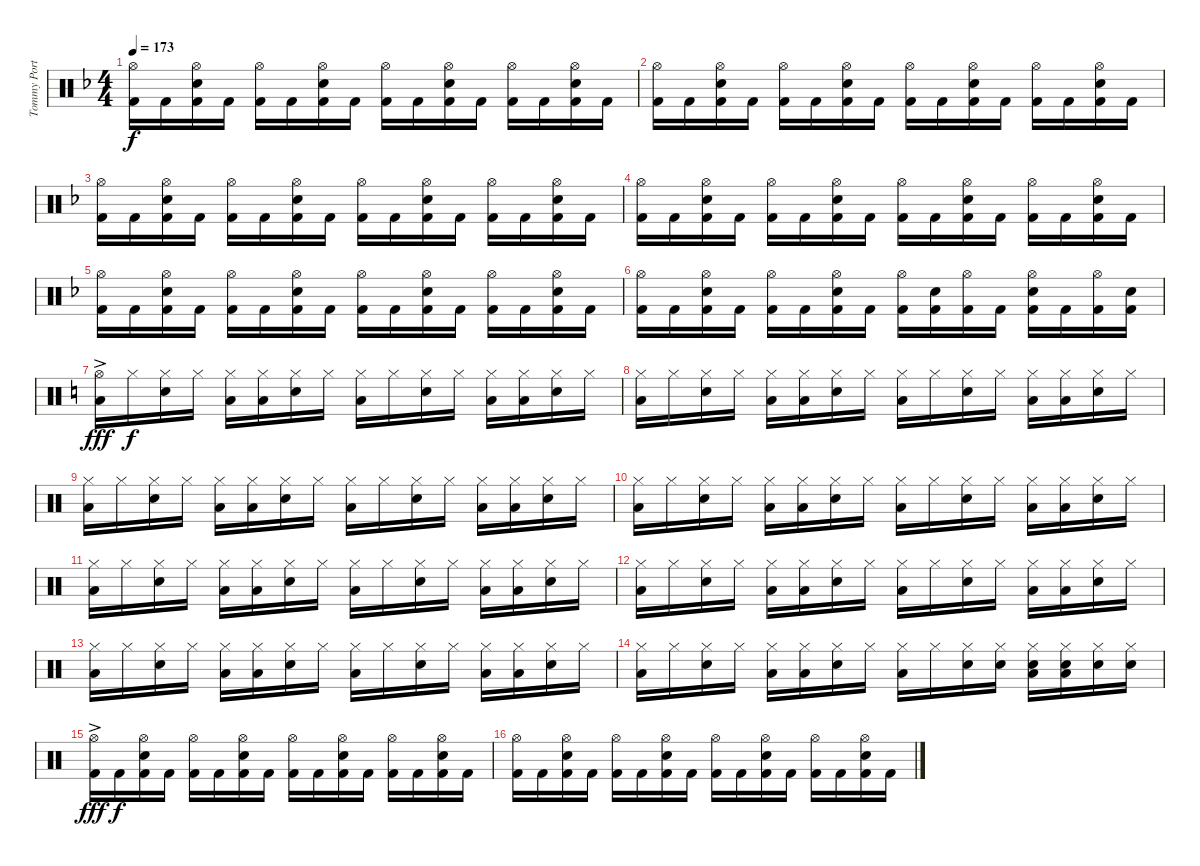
\track ("Tommy Portimo - Drums" "Tommy Port") {instrument percussion}
\staff {score}
\articulation defaults
\ts (4 4)
\tempo 173
\clef neutral
\ks dminor
("Kick (hit) 2" "Hi-Hat (open)").16{dy f} "Kick (hit) 2".16 ("Kick (hit) 2" "Electric Snare (hit)" "Hi-Hat (open)").16 "Kick (hit) 2".16 ("Kick (hit) 2" "Hi-Hat (open)").16 "Kick (hit) 2".16 ("Kick (hit) 2" "Electric Snare (hit)" "Hi-Hat (open)").16 "Kick (hit) 2".16 ("Kick (hit) 2" "Hi-Hat (open)").16 "Kick (hit) 2".16 ("Kick (hit) 2" "Electric Snare (hit)" "Hi-Hat (open)").16 "Kick (hit) 2".16 ("Kick (hit) 2" "Hi-Hat (open)").16 "Kick (hit) 2".16 ("Kick (hit) 2" "Electric Snare (hit)" "Hi-Hat (open)").16 "Kick (hit) 2".16 |
("Kick (hit) 2" "Hi-Hat (open)").16 "Kick (hit) 2".16 ("Kick (hit) 2" "Electric Snare (hit)" "Hi-Hat (open)").16 "Kick (hit) 2".16 ("Kick (hit) 2" "Hi-Hat (open)").16 "Kick (hit) 2".16 ("Kick (hit) 2" "Electric Snare (hit)" "Hi-Hat (open)").16 "Kick (hit) 2".16 ("Kick (hit) 2" "Hi-Hat (open)").16 "Kick (hit) 2".16 ("Kick (hit) 2" "Electric Snare (hit)" "Hi-Hat (open)").16 "Kick (hit) 2".16 ("Kick (hit) 2" "Hi-Hat (open)").16 "Kick (hit) 2".16 ("Kick (hit) 2" "Electric Snare (hit)" "Hi-Hat (open)").16 "Kick (hit) 2".16 |
("Kick (hit) 2" "Hi-Hat (open)").16 "Kick (hit) 2".16 ("Kick (hit) 2" "Electric Snare (hit)" "Hi-Hat (open)").16 "Kick (hit) 2".16 ("Kick (hit) 2" "Hi-Hat (open)").16 "Kick (hit) 2".16 ("Kick (hit) 2" "Electric Snare (hit)" "Hi-Hat (open)").16 "Kick (hit) 2".16 ("Kick (hit) 2" "Hi-Hat (open)").16 "Kick (hit) 2".16 ("Kick (hit) 2" "Electric Snare (hit)" "Hi-Hat (open)").16 "Kick (hit) 2".16 ("Kick (hit) 2" "Hi-Hat (open)").16 "Kick (hit) 2".16 ("Kick (hit) 2" "Electric Snare (hit)" "Hi-Hat (open)").16 "Kick (hit) 2".16 |
("Kick (hit) 2" "Hi-Hat (open)").16 "Kick (hit) 2".16 ("Kick (hit) 2" "Electric Snare (hit)" "Hi-Hat (open)").16 "Kick (hit) 2".16 ("Kick (hit) 2" "Hi-Hat (open)").16 "Kick (hit) 2".16 ("Kick (hit) 2" "Electric Snare (hit)" "Hi-Hat (open)").16 "Kick (hit) 2".16 ("Kick (hit) 2" "Hi-Hat (open)").16 "Kick (hit) 2".16 ("Kick (hit) 2" "Electric Snare (hit)" "Hi-Hat (open)").16 "Kick (hit) 2".16 ("Kick (hit) 2" "Hi-Hat (open)").16 "Kick (hit) 2".16 ("Kick (hit) 2" "Electric Snare (hit)" "Hi-Hat (open)").16 "Kick (hit) 2".16 |
("Kick (hit) 2" "Hi-Hat (open)").16 "Kick (hit) 2".16 ("Kick (hit) 2" "Electric Snare (hit)" "Hi-Hat (open)").16 "Kick (hit) 2".16 ("Kick (hit) 2" "Hi-Hat (open)").16 "Kick (hit) 2".16 ("Kick (hit) 2" "Electric Snare (hit)" "Hi-Hat (open)").16 "Kick (hit) 2".16 ("Kick (hit) 2" "Hi-Hat (open)").16 "Kick (hit) 2".16 ("Kick (hit) 2" "Electric Snare (hit)" "Hi-Hat (open)").16 "Kick (hit) 2".16 ("Kick (hit) 2" "Hi-Hat (open)").16 "Kick (hit) 2".16 ("Kick (hit) 2" "Electric Snare (hit)" "Hi-Hat (open)").16 "Kick (hit) 2".16 |
("Kick (hit) 2" "Hi-Hat (open)").16 "Kick (hit) 2".16 ("Kick (hit) 2" "Electric Snare (hit)" "Hi-Hat (open)").16 "Kick (hit) 2".16 ("Kick (hit) 2" "Hi-Hat (open)").16 "Kick (hit) 2".16 ("Kick (hit) 2" "Electric Snare (hit)" "Hi-Hat (open)").16 "Kick (hit) 2".16 ("Kick (hit) 2" "Hi-Hat (open)").16 ("Kick (hit) 2" "Electric Snare (hit)").16 ("Kick (hit) 2" "Hi-Hat (open)").16 "Kick (hit) 2".16 ("Kick (hit) 2" "Electric Snare (hit)" "Hi-Hat (open)").16 "Kick (hit) 2".16 ("Kick (hit) 2" "Hi-Hat (open)").16 ("Kick (hit) 2" "Electric Snare (hit)").16 |
\ks c
("Low Floor Tom (hit)"{ac} "Hi-Hat (open)").16{dy fff} "Hi-Hat (closed)".16{dy f} ("Electric Snare (hit)" "Hi-Hat (closed)").16 "Hi-Hat (closed)".16 ("Low Floor Tom (hit)" "Hi-Hat (closed)").16 ("Low Floor Tom (hit)" "Hi-Hat (closed)").16 ("Electric Snare (hit)" "Hi-Hat (closed)").16 "Hi-Hat (closed)".16 ("Low Floor Tom (hit)" "Hi-Hat (closed)").16 "Hi-Hat (closed)".16 ("Electric Snare (hit)" "Hi-Hat (closed)").16 "Hi-Hat (closed)".16 ("Low Floor Tom (hit)" "Hi-Hat (closed)").16 ("Low Floor Tom (hit)" "Hi-Hat (closed)").16 ("Electric Snare (hit)" "Hi-Hat (closed)").16 "Hi-Hat (closed)".16 |
("Low Floor Tom (hit)" "Hi-Hat (closed)").16 "Hi-Hat (closed)".16 ("Electric Snare (hit)" "Hi-Hat (closed)").16 "Hi-Hat (closed)".16 ("Low Floor Tom (hit)" "Hi-Hat (closed)").16 ("Low Floor Tom (hit)" "Hi-Hat (closed)").16 ("Electric Snare (hit)" "Hi-Hat (closed)").16 "Hi-Hat (closed)".16 ("Low Floor Tom (hit)" "Hi-Hat (closed)").16 "Hi-Hat (closed)".16 ("Electric Snare (hit)" "Hi-Hat (closed)").16 "Hi-Hat (closed)".16 ("Low Floor Tom (hit)" "Hi-Hat (closed)").16 ("Low Floor Tom (hit)" "Hi-Hat (closed)").16 ("Electric Snare (hit)" "Hi-Hat (closed)").16 "Hi-Hat (closed)".16 |
("Low Floor Tom (hit)" "Hi-Hat (closed)").16 "Hi-Hat (closed)".16 ("Electric Snare (hit)" "Hi-Hat (closed)").16 "Hi-Hat (closed)".16 ("Low Floor Tom (hit)" "Hi-Hat (closed)").16 ("Low Floor Tom (hit)" "Hi-Hat (closed)").16 ("Electric Snare (hit)" "Hi-Hat (closed)").16 "Hi-Hat (closed)".16 ("Low Floor Tom (hit)" "Hi-Hat (closed)").16 "Hi-Hat (closed)".16 ("Electric Snare (hit)" "Hi-Hat (closed)").16 "Hi-Hat (closed)".16 ("Low Floor Tom (hit)" "Hi-Hat (closed)").16 ("Low Floor Tom (hit)" "Hi-Hat (closed)").16 ("Electric Snare (hit)" "Hi-Hat (closed)").16 "Hi-Hat (closed)".16 |
("Low Floor Tom (hit)" "Hi-Hat (closed)").16 "Hi-Hat (closed)".16 ("Electric Snare (hit)" "Hi-Hat (closed)").16 "Hi-Hat (closed)".16 ("Low Floor Tom (hit)" "Hi-Hat (closed)").16 ("Low Floor Tom (hit)" "Hi-Hat (closed)").16 ("Electric Snare (hit)" "Hi-Hat (closed)").16 "Hi-Hat (closed)".16 ("Low Floor Tom (hit)" "Hi-Hat (closed)").16 "Hi-Hat (closed)".16 ("Electric Snare (hit)" "Hi-Hat (closed)").16 "Hi-Hat (closed)".16 ("Low Floor Tom (hit)" "Hi-Hat (closed)").16 ("Low Floor Tom (hit)" "Hi-Hat (closed)").16 ("Electric Snare (hit)" "Hi-Hat (closed)").16 "Hi-Hat (closed)".16 |
("Low Floor Tom (hit)" "Hi-Hat (closed)").16 "Hi-Hat (closed)".16 ("Electric Snare (hit)" "Hi-Hat (closed)").16 "Hi-Hat (closed)".16 ("Low Floor Tom (hit)" "Hi-Hat (closed)").16 ("Low Floor Tom (hit)" "Hi-Hat (closed)").16 ("Electric Snare (hit)" "Hi-Hat (closed)").16 "Hi-Hat (closed)".16 ("Low Floor Tom (hit)" "Hi-Hat (closed)").16 "Hi-Hat (closed)".16 ("Electric Snare (hit)" "Hi-Hat (closed)").16 "Hi-Hat (closed)".16 ("Low Floor Tom (hit)" "Hi-Hat (closed)").16 ("Low Floor Tom (hit)" "Hi-Hat (closed)").16 ("Electric Snare (hit)" "Hi-Hat (closed)").16 "Hi-Hat (closed)".16 |
("Low Floor Tom (hit)" "Hi-Hat (closed)").16 "Hi-Hat (closed)".16 ("Electric Snare (hit)" "Hi-Hat (closed)").16 "Hi-Hat (closed)".16 ("Low Floor Tom (hit)" "Hi-Hat (closed)").16 ("Low Floor Tom (hit)" "Hi-Hat (closed)").16 ("Electric Snare (hit)" "Hi-Hat (closed)").16 "Hi-Hat (closed)".16 ("Low Floor Tom (hit)" "Hi-Hat (closed)").16 "Hi-Hat (closed)".16 ("Electric Snare (hit)" "Hi-Hat (closed)").16 "Hi-Hat (closed)".16 ("Low Floor Tom (hit)" "Hi-Hat (closed)").16 ("Low Floor Tom (hit)" "Hi-Hat (closed)").16 ("Electric Snare (hit)" "Hi-Hat (closed)").16 "Hi-Hat (closed)".16 |
("Low Floor Tom (hit)" "Hi-Hat (closed)").16 "Hi-Hat (closed)".16 ("Electric Snare (hit)" "Hi-Hat (closed)").16 "Hi-Hat (closed)".16 ("Low Floor Tom (hit)" "Hi-Hat (closed)").16 ("Low Floor Tom (hit)" "Hi-Hat (closed)").16 ("Electric Snare (hit)" "Hi-Hat (closed)").16 "Hi-Hat (closed)".16 ("Low Floor Tom (hit)" "Hi-Hat (closed)").16 "Hi-Hat (closed)".16 ("Electric Snare (hit)" "Hi-Hat (closed)").16 "Hi-Hat (closed)".16 ("Low Floor Tom (hit)" "Hi-Hat (closed)").16 ("Low Floor Tom (hit)" "Hi-Hat (closed)").16 ("Electric Snare (hit)" "Hi-Hat (closed)").16 "Hi-Hat (closed)".16 |
("Low Floor Tom (hit)" "Hi-Hat (closed)").16 "Hi-Hat (closed)".16 ("Electric Snare (hit)" "Hi-Hat (closed)").16 "Hi-Hat (closed)".16 ("Low Floor Tom (hit)" "Hi-Hat (closed)").16 ("Low Floor Tom (hit)" "Hi-Hat (closed)").16 ("Electric Snare (hit)" "Hi-Hat (closed)").16 "Hi-Hat (closed)".16 ("Low Floor Tom (hit)" "Hi-Hat (closed)").16 "Hi-Hat (closed)".16 ("Electric Snare (hit)" "Hi-Hat (closed)").16 ("Electric Snare (hit)" "Hi-Hat (closed)").16 ("Low Floor Tom (hit)" "Electric Snare (hit)" "Hi-Hat (closed)").16 ("Low Floor Tom (hit)" "Electric Snare (hit)" "Hi-Hat (closed)").16 ("Electric Snare (hit)" "Hi-Hat (closed)").16 ("Electric Snare (hit)" "Hi-Hat (closed)").16 |
("Kick (hit) 2"{ac} "Hi-Hat (open)").16{dy fff} "Kick (hit) 2".16{dy f} ("Kick (hit) 2" "Electric Snare (hit)" "Hi-Hat (open)").16 "Kick (hit) 2".16 ("Kick (hit) 2" "Hi-Hat (open)").16 "Kick (hit) 2".16 ("Kick (hit) 2" "Electric Snare (hit)" "Hi-Hat (open)").16 "Kick (hit) 2".16 ("Kick (hit) 2" "Hi-Hat (open)").16 "Kick (hit) 2".16 ("Kick (hit) 2" "Electric Snare (hit)" "Hi-Hat (open)").16 "Kick (hit) 2".16 ("Kick (hit) 2" "Hi-Hat (open)").16 "Kick (hit) 2".16 ("Kick (hit) 2" "Electric Snare (hit)" "Hi-Hat (open)").16 "Kick (hit) 2".16 |
("Kick (hit) 2" "Hi-Hat (open)").16 "Kick (hit) 2".16 ("Kick (hit) 2" "Electric Snare (hit)" "Hi-Hat (open)").16 "Kick (hit) 2".16 ("Kick (hit) 2" "Hi-Hat (open)").16 "Kick (hit) 2".16 ("Kick (hit) 2" "Electric Snare (hit)" "Hi-Hat (open)").16 "Kick (hit) 2".16 ("Kick (hit) 2" "Hi-Hat (open)").16 "Kick (hit) 2".16 ("Kick (hit) 2" "Electric Snare (hit)" "Hi-Hat (open)").16 "Kick (hit) 2".16 ("Kick (hit) 2" "Hi-Hat (open)").16 "Kick (hit) 2".16 ("Kick (hit) 2" "Electric Snare (hit)" "Hi-Hat (open)").16 "Kick (hit) 2".16
